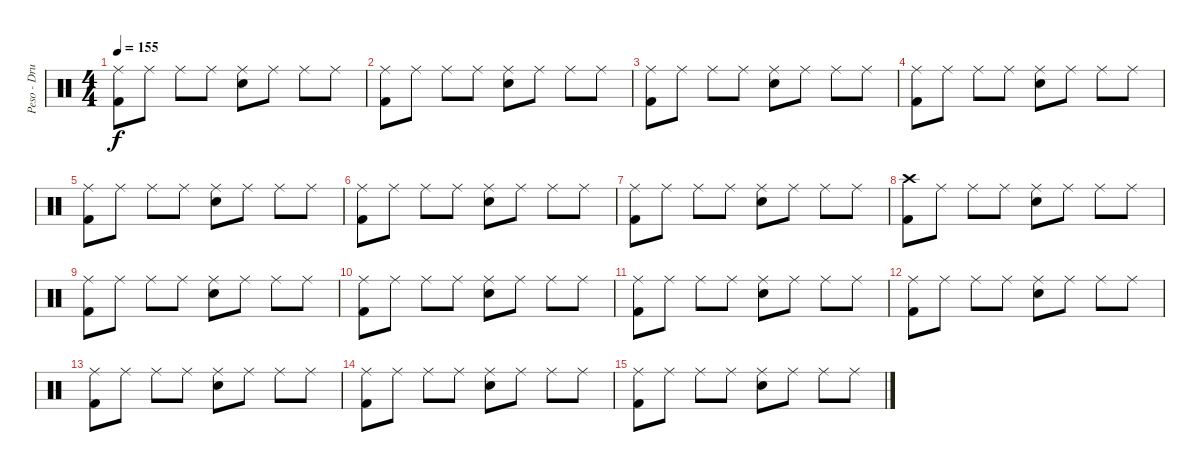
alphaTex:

\track ("Peso - Drums" "Peso - Dru") {instrument percussion}
\staff {score}
\articulation defaults
\ts (4 4)
\tempo 155
\clef neutral
\ks c
("Ride (middle)" "Kick (hit) 2").8{dy f} "Ride (middle)".8 "Ride (middle)".8 "Ride (middle)".8 ("Ride (middle)" "Electric Snare (hit)").8 "Ride (middle)".8 "Ride (middle)".8 "Ride (middle)".8 |
("Ride (middle)" "Kick (hit) 2").8 "Ride (middle)".8 "Ride (middle)".8 "Ride (middle)".8 ("Ride (middle)" "Electric Snare (hit)").8 "Ride (middle)".8 "Ride (middle)".8 "Ride (middle)".8 |
("Ride (middle)" "Kick (hit) 2").8 "Ride (middle)".8 "Ride (middle)".8 "Ride (middle)".8 ("Ride (middle)" "Electric Snare (hit)").8 "Ride (middle)".8 "Ride (middle)".8 "Ride (middle)".8 |
("Ride (middle)" "Kick (hit) 2").8{volume 5} "Ride (middle)".8 "Ride (middle)".8 "Ride (middle)".8 ("Ride (middle)" "Electric Snare (hit)").8 "Ride (middle)".8 "Ride (middle)".8 "Ride (middle)".8 |
("Ride (middle)" "Kick (hit) 2").8 "Ride (middle)".8 "Ride (middle)".8 "Ride (middle)".8 ("Ride (middle)" "Electric Snare (hit)").8 "Ride (middle)".8 "Ride (middle)".8 "Ride (middle)".8 |
("Ride (middle)" "Kick (hit) 2").8 "Ride (middle)".8 "Ride (middle)".8 "Ride (middle)".8 ("Ride (middle)" "Electric Snare (hit)").8 "Ride (middle)".8 "Ride (middle)".8 "Ride (middle)".8 |
("Ride (middle)" "Kick (hit) 2").8 "Ride (middle)".8 "Ride (middle)".8 "Ride (middle)".8 ("Ride (middle)" "Electric Snare (hit)").8 "Ride (middle)".8 "Ride (middle)".8 "Ride (middle)".8 |
("Crash high (hit)" "Kick (hit) 2").8{volume 3} "Ride (middle)".8 "Ride (middle)".8 "Ride (middle)".8 ("Ride (middle)" "Electric Snare (hit)").8 "Ride (middle)".8 "Ride (middle)".8 "Ride (middle)".8 |
("Ride (middle)" "Kick (hit) 2").8 "Ride (middle)".8 "Ride (middle)".8 "Ride (middle)".8 ("Ride (middle)" "Electric Snare (hit)").8 "Ride (middle)".8 "Ride (middle)".8 "Ride (middle)".8 |
("Ride (middle)" "Kick (hit) 2").8 "Ride (middle)".8 "Ride (middle)".8 "Ride (middle)".8 ("Ride (middle)" "Electric Snare (hit)").8 "Ride (middle)".8 "Ride (middle)".8 "Ride (middle)".8 |
("Ride (middle)" "Kick (hit) 2").8 "Ride (middle)".8 "Ride (middle)".8 "Ride (middle)".8 ("Ride (middle)" "Electric Snare (hit)").8 "Ride (middle)".8 "Ride (middle)".8 "Ride (middle)".8 |
("Ride (middle)" "Kick (hit) 2").8{volume 0} "Ride (middle)".8 "Ride (middle)".8 "Ride (middle)".8 ("Ride (middle)" "Electric Snare (hit)").8 "Ride (middle)".8 "Ride (middle)".8 "Ride (middle)".8 |
("Ride (middle)" "Kick (hit) 2").8 "Ride (middle)".8 "Ride (middle)".8 "Ride (middle)".8 ("Ride (middle)" "Electric Snare (hit)").8 "Ride (middle)".8 "Ride (middle)".8 "Ride (middle)".8 |
("Ride (middle)" "Kick (hit) 2").8 "Ride (middle)".8 "Ride (middle)".8 "Ride (middle)".8 ("Ride (middle)" "Electric Snare (hit)").8 "Ride (middle)".8 "Ride (middle)".8 "Ride (middle)".8 |
("Ride (middle)" "Kick (hit) 2").8 "Ride (middle)".8 "Ride (middle)".8 "Ride (middle)".8 ("Ride (middle)" "Electric Snare (hit)").8 "Ride (middle)".8 "Ride (middle)".8 "Ride (middle)".8
